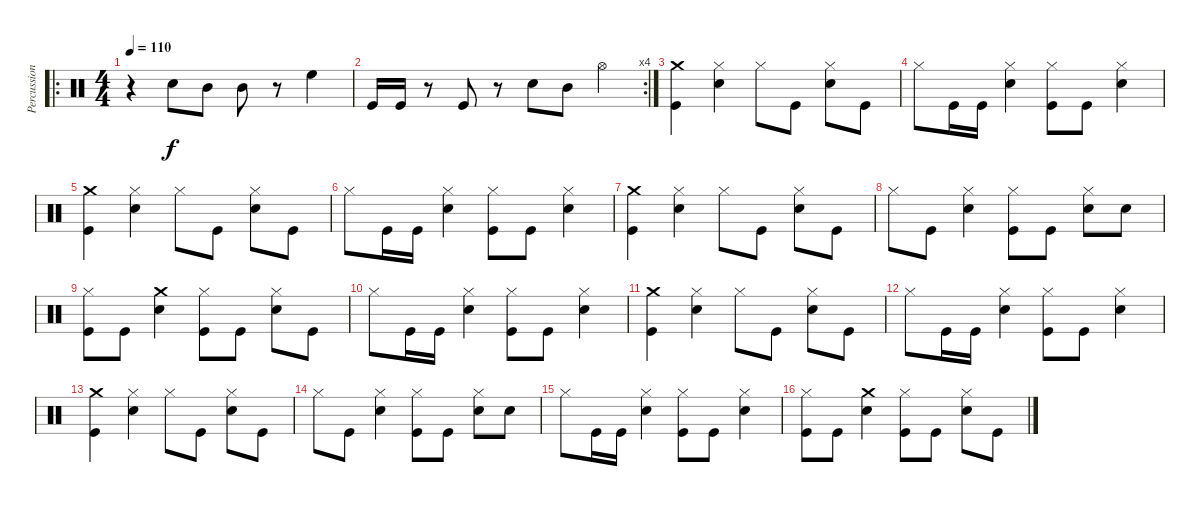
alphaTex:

\track ("Percussion" "Percussion") {instrument percussion}
\staff {score}
\articulation defaults
\ro
\ts (4 4)
\tempo 110
\clef neutral
\ks c
r.4{dy f} "Snare (hit) 2".8 "Mid Tom (hit)".8 "Mid Tom (hit)".8 r.8 "High Floor Tom (hit)".4 |
\rc 4 "Kick (hit)".16 "Kick (hit)".16
r.8 "Kick (hit)".8 r.8 "Snare (hit) 2".8 "Mid Tom (hit)".8 "Hi-Hat (open)".4 |
("Kick (hit)" "Crash medium (hit)").4 ("Hi-Hat (closed)" "Snare (hit) 2").4 "Hi-Hat (closed)".8 "Kick (hit)".8 ("Snare (hit) 2" "Hi-Hat (closed)").8 "Kick (hit)".8 |
"Hi-Hat (closed)".8 "Kick (hit)".16 "Kick (hit)".16 ("Snare (hit) 2" "Hi-Hat (closed)").4 ("Kick (hit)" "Hi-Hat (closed)").8 "Kick (hit)".8 ("Snare (hit) 2" "Hi-Hat (closed)").4 |
("Kick (hit)" "Crash medium (hit)").4 ("Hi-Hat (closed)" "Snare (hit) 2").4 "Hi-Hat (closed)".8 "Kick (hit)".8 ("Snare (hit) 2" "Hi-Hat (closed)").8 "Kick (hit)".8 |
"Hi-Hat (closed)".8 "Kick (hit)".16 "Kick (hit)".16 ("Snare (hit) 2" "Hi-Hat (closed)").4 ("Kick (hit)" "Hi-Hat (closed)").8 "Kick (hit)".8 ("Snare (hit) 2" "Hi-Hat (closed)").4 |
("Kick (hit)" "Crash medium (hit)").4 ("Snare (hit) 2" "Hi-Hat (closed)").4 "Hi-Hat (closed)".8 "Kick (hit)".8 ("Snare (hit) 2" "Hi-Hat (closed)").8 "Kick (hit)".8 |
"Hi-Hat (closed)".8 "Kick (hit)".8 ("Snare (hit) 2" "Hi-Hat (closed)").4 ("Kick (hit)" "Hi-Hat (closed)").8 "Kick (hit)".8 ("Snare (hit) 2" "Hi-Hat (closed)").8 "Snare (hit) 2".8 |
("Hi-Hat (closed)" "Kick (hit)").8 "Kick (hit)".8 ("Crash medium (hit)" "Snare (hit) 2").4 ("Hi-Hat (closed)" "Kick (hit)").8 "Kick (hit)".8 ("Snare (hit) 2" "Hi-Hat (closed)").8 "Kick (hit)".8 |
"Hi-Hat (closed)".8 "Kick (hit)".16 "Kick (hit)".16 ("Snare (hit) 2" "Hi-Hat (closed)").4 ("Kick (hit)" "Hi-Hat (closed)").8 "Kick (hit)".8 ("Snare (hit) 2" "Hi-Hat (closed)").4 |
("Kick (hit)" "Crash medium (hit)").4 ("Hi-Hat (closed)" "Snare (hit) 2").4 "Hi-Hat (closed)".8 "Kick (hit)".8 ("Snare (hit) 2" "Hi-Hat (closed)").8 "Kick (hit)".8 |
"Hi-Hat (closed)".8 "Kick (hit)".16 "Kick (hit)".16 ("Snare (hit) 2" "Hi-Hat (closed)").4 ("Kick (hit)" "Hi-Hat (closed)").8 "Kick (hit)".8 ("Snare (hit) 2" "Hi-Hat (closed)").4 |
("Kick (hit)" "Crash medium (hit)").4 ("Snare (hit) 2" "Hi-Hat (closed)").4 "Hi-Hat (closed)".8 "Kick (hit)".8 ("Snare (hit) 2" "Hi-Hat (closed)").8 "Kick (hit)".8 |
"Hi-Hat (closed)".8 "Kick (hit)".8 ("Snare (hit) 2" "Hi-Hat (closed)").4 ("Kick (hit)" "Hi-Hat (closed)").8 "Kick (hit)".8 ("Snare (hit) 2" "Hi-Hat (closed)").8 "Snare (hit) 2".8 |
"Hi-Hat (closed)".8 "Kick (hit)".16 "Kick (hit)".16 ("Snare (hit) 2" "Hi-Hat (closed)").4 ("Kick (hit)" "Hi-Hat (closed)").8 "Kick (hit)".8 ("Snare (hit) 2" "Hi-Hat (closed)").4 |
("Hi-Hat (closed)" "Kick (hit)").8 "Kick (hit)".8 ("Crash medium (hit)" "Snare (hit) 2").4 ("Hi-Hat (closed)" "Kick (hit)").8 "Kick (hit)".8 ("Snare (hit) 2" "Hi-Hat (closed)").8 "Kick (hit)".8
